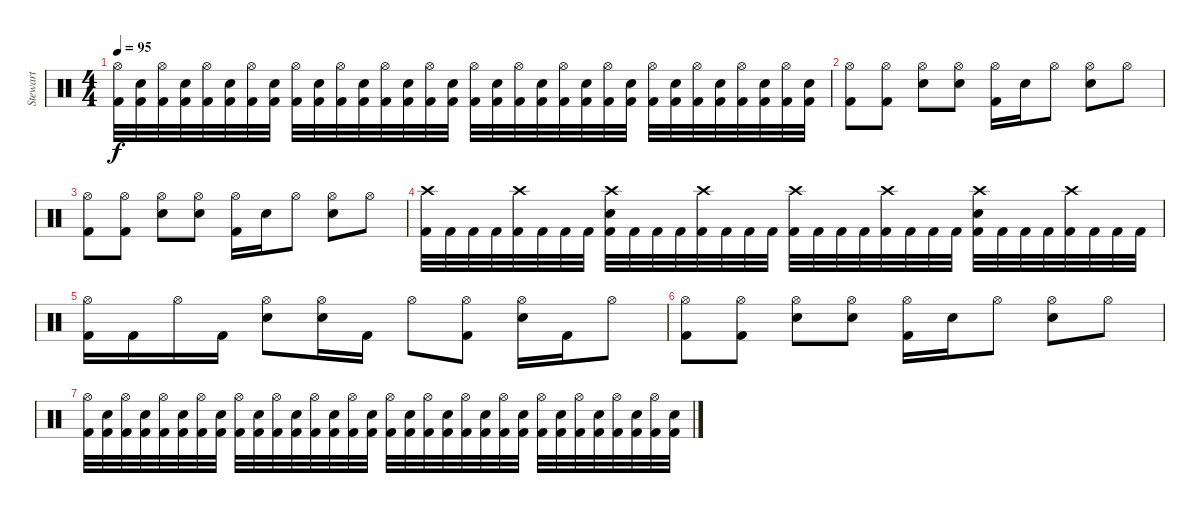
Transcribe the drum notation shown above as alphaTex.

\track ("Stewart" "Stewart") {instrument percussion}
\staff {score}
\articulation defaults
\ts (4 4)
\tempo 95
\clef neutral
\ks c
("Hi-Hat (open)" "Kick (hit) 2").32{dy f} ("Snare (hit) 2" "Kick (hit) 2").32 ("Hi-Hat (open)" "Kick (hit) 2").32 ("Snare (hit) 2" "Kick (hit) 2").32 ("Hi-Hat (open)" "Kick (hit) 2").32 ("Snare (hit) 2" "Kick (hit) 2").32 ("Hi-Hat (open)" "Kick (hit) 2").32 ("Snare (hit) 2" "Kick (hit) 2").32 ("Hi-Hat (open)" "Kick (hit) 2").32 ("Snare (hit) 2" "Kick (hit) 2").32 ("Hi-Hat (open)" "Kick (hit) 2").32 ("Snare (hit) 2" "Kick (hit) 2").32 ("Hi-Hat (open)" "Kick (hit) 2").32 ("Snare (hit) 2" "Kick (hit) 2").32 ("Hi-Hat (open)" "Kick (hit) 2").32 ("Snare (hit) 2" "Kick (hit) 2").32 ("Hi-Hat (open)" "Kick (hit) 2").32 ("Snare (hit) 2" "Kick (hit) 2").32 ("Hi-Hat (open)" "Kick (hit) 2").32 ("Snare (hit) 2" "Kick (hit) 2").32 ("Hi-Hat (open)" "Kick (hit) 2").32 ("Snare (hit) 2" "Kick (hit) 2").32 ("Hi-Hat (open)" "Kick (hit) 2").32 ("Snare (hit) 2" "Kick (hit) 2").32 ("Hi-Hat (open)" "Kick (hit) 2").32 ("Snare (hit) 2" "Kick (hit) 2").32 ("Hi-Hat (open)" "Kick (hit) 2").32 ("Snare (hit) 2" "Kick (hit) 2").32 ("Hi-Hat (open)" "Kick (hit) 2").32 ("Snare (hit) 2" "Kick (hit) 2").32 ("Hi-Hat (open)" "Kick (hit) 2").32 ("Snare (hit) 2" "Kick (hit) 2").32 |
("Hi-Hat (open)" "Kick (hit) 2").8 ("Hi-Hat (open)" "Kick (hit) 2").8 ("Hi-Hat (open)" "Snare (hit) 2").8 ("Hi-Hat (open)" "Snare (hit) 2").8 ("Hi-Hat (open)" "Kick (hit) 2").16 "Snare (hit) 2".16 "Hi-Hat (open)".8 ("Hi-Hat (open)" "Snare (hit) 2").8 "Hi-Hat (open)".8 |
("Hi-Hat (open)" "Kick (hit) 2").8 ("Hi-Hat (open)" "Kick (hit) 2").8 ("Hi-Hat (open)" "Snare (hit) 2").8 ("Hi-Hat (open)" "Snare (hit) 2").8 ("Hi-Hat (open)" "Kick (hit) 2").16 "Snare (hit) 2".16 "Hi-Hat (open)".8 ("Hi-Hat (open)" "Snare (hit) 2").8 "Hi-Hat (open)".8 |
("Crash high (hit)" "Kick (hit) 2").32 "Kick (hit) 2".32 "Kick (hit) 2".32 "Kick (hit) 2".32 ("Crash high (hit)" "Kick (hit) 2").32 "Kick (hit) 2".32 "Kick (hit) 2".32 "Kick (hit) 2".32 ("Crash high (hit)" "Snare (hit) 2" "Kick (hit) 2").32 "Kick (hit) 2".32 "Kick (hit) 2".32 "Kick (hit) 2".32 ("Crash high (hit)" "Kick (hit) 2").32 "Kick (hit) 2".32 "Kick (hit) 2".32 "Kick (hit) 2".32 ("Crash high (hit)" "Kick (hit) 2").32 "Kick (hit) 2".32 "Kick (hit) 2".32 "Kick (hit) 2".32 ("Crash high (hit)" "Kick (hit) 2").32 "Kick (hit) 2".32 "Kick (hit) 2".32 "Kick (hit) 2".32 ("Crash high (hit)" "Snare (hit) 2" "Kick (hit) 2").32 "Kick (hit) 2".32 "Kick (hit) 2".32 "Kick (hit) 2".32 ("Crash high (hit)" "Kick (hit) 2").32 "Kick (hit) 2".32 "Kick (hit) 2".32 "Kick (hit) 2".32 |
("Hi-Hat (open)" "Kick (hit) 2").16 "Kick (hit) 2".16 "Hi-Hat (open)".16 "Kick (hit) 2".16 ("Hi-Hat (open)" "Snare (hit) 2").8 ("Hi-Hat (open)" "Snare (hit) 2").16 "Kick (hit) 2".16 "Hi-Hat (open)".8 ("Hi-Hat (open)" "Kick (hit) 2").8 ("Hi-Hat (open)" "Snare (hit) 2").16 "Kick (hit) 2".16 "Hi-Hat (open)".8 |
("Hi-Hat (open)" "Kick (hit) 2").8 ("Hi-Hat (open)" "Kick (hit) 2").8 ("Hi-Hat (open)" "Snare (hit) 2").8 ("Hi-Hat (open)" "Snare (hit) 2").8 ("Hi-Hat (open)" "Kick (hit) 2").16 "Snare (hit) 2".16 "Hi-Hat (open)".8 ("Hi-Hat (open)" "Snare (hit) 2").8 "Hi-Hat (open)".8 |
("Hi-Hat (open)" "Kick (hit) 2").32 ("Snare (hit) 2" "Kick (hit) 2").32 ("Hi-Hat (open)" "Kick (hit) 2").32 ("Snare (hit) 2" "Kick (hit) 2").32 ("Hi-Hat (open)" "Kick (hit) 2").32 ("Snare (hit) 2" "Kick (hit) 2").32 ("Hi-Hat (open)" "Kick (hit) 2").32 ("Snare (hit) 2" "Kick (hit) 2").32 ("Hi-Hat (open)" "Kick (hit) 2").32 ("Snare (hit) 2" "Kick (hit) 2").32 ("Hi-Hat (open)" "Kick (hit) 2").32 ("Snare (hit) 2" "Kick (hit) 2").32 ("Hi-Hat (open)" "Kick (hit) 2").32 ("Snare (hit) 2" "Kick (hit) 2").32 ("Hi-Hat (open)" "Kick (hit) 2").32 ("Snare (hit) 2" "Kick (hit) 2").32 ("Hi-Hat (open)" "Kick (hit) 2").32 ("Snare (hit) 2" "Kick (hit) 2").32 ("Hi-Hat (open)" "Kick (hit) 2").32 ("Snare (hit) 2" "Kick (hit) 2").32 ("Hi-Hat (open)" "Kick (hit) 2").32 ("Snare (hit) 2" "Kick (hit) 2").32 ("Hi-Hat (open)" "Kick (hit) 2").32 ("Snare (hit) 2" "Kick (hit) 2").32 ("Hi-Hat (open)" "Kick (hit) 2").32 ("Snare (hit) 2" "Kick (hit) 2").32 ("Hi-Hat (open)" "Kick (hit) 2").32 ("Snare (hit) 2" "Kick (hit) 2").32 ("Hi-Hat (open)" "Kick (hit) 2").32 ("Snare (hit) 2" "Kick (hit) 2").32 ("Hi-Hat (open)" "Kick (hit) 2").32 ("Snare (hit) 2" "Kick (hit) 2").32
